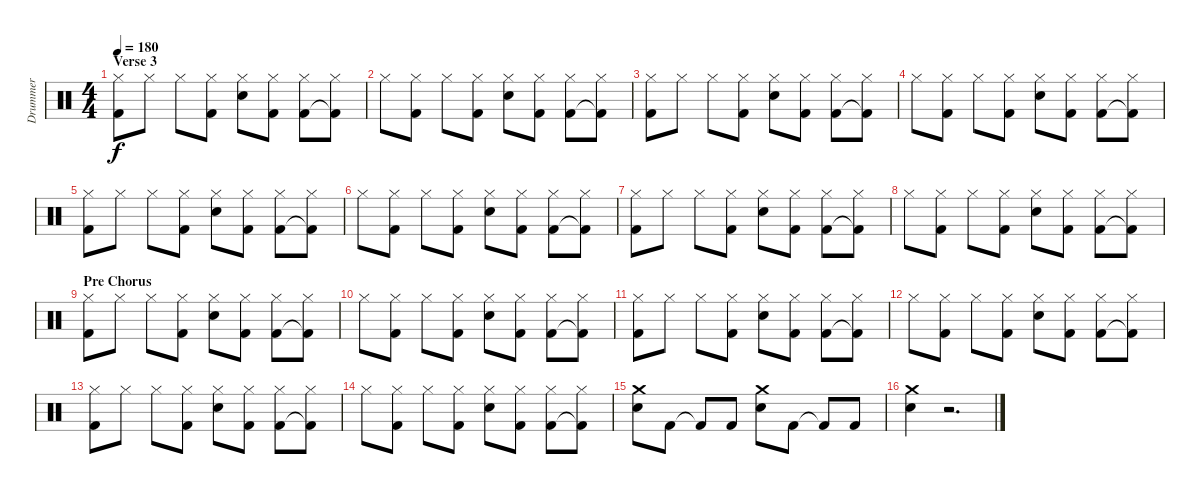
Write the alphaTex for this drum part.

\track ("Drummer" "Drummer") {instrument percussion}
\staff {score}
\articulation defaults
\ts (4 4)
\section ("" "Verse 3")
\tempo 180
\clef neutral
\ks c
("Kick (hit) 2" "Hi-Hat (closed)").8{dy f} "Hi-Hat (closed)".8 "Hi-Hat (closed)".8 ("Kick (hit) 2" "Hi-Hat (closed)").8 ("Snare (hit) 2" "Hi-Hat (closed)").8 ("Kick (hit) 2" "Hi-Hat (closed)").8 ("Kick (hit) 2" "Hi-Hat (closed)").8 ("Kick (hit) 2"{t} "Hi-Hat (closed)").8 |
"Hi-Hat (closed)".8 ("Kick (hit) 2" "Hi-Hat (closed)").8 "Hi-Hat (closed)".8 ("Kick (hit) 2" "Hi-Hat (closed)").8 ("Snare (hit) 2" "Hi-Hat (closed)").8 ("Kick (hit) 2" "Hi-Hat (closed)").8 ("Kick (hit) 2" "Hi-Hat (closed)").8 ("Kick (hit) 2"{t} "Hi-Hat (closed)").8 |
("Kick (hit) 2" "Hi-Hat (closed)").8 "Hi-Hat (closed)".8 "Hi-Hat (closed)".8 ("Kick (hit) 2" "Hi-Hat (closed)").8 ("Snare (hit) 2" "Hi-Hat (closed)").8 ("Kick (hit) 2" "Hi-Hat (closed)").8 ("Kick (hit) 2" "Hi-Hat (closed)").8 ("Kick (hit) 2"{t} "Hi-Hat (closed)").8 |
"Hi-Hat (closed)".8 ("Kick (hit) 2" "Hi-Hat (closed)").8 "Hi-Hat (closed)".8 ("Kick (hit) 2" "Hi-Hat (closed)").8 ("Snare (hit) 2" "Hi-Hat (closed)").8 ("Kick (hit) 2" "Hi-Hat (closed)").8 ("Kick (hit) 2" "Hi-Hat (closed)").8 ("Kick (hit) 2"{t} "Hi-Hat (closed)").8 |
("Kick (hit) 2" "Hi-Hat (closed)").8 "Hi-Hat (closed)".8 "Hi-Hat (closed)".8 ("Kick (hit) 2" "Hi-Hat (closed)").8 ("Snare (hit) 2" "Hi-Hat (closed)").8 ("Kick (hit) 2" "Hi-Hat (closed)").8 ("Kick (hit) 2" "Hi-Hat (closed)").8 ("Kick (hit) 2"{t} "Hi-Hat (closed)").8 |
"Hi-Hat (closed)".8 ("Kick (hit) 2" "Hi-Hat (closed)").8 "Hi-Hat (closed)".8 ("Kick (hit) 2" "Hi-Hat (closed)").8 ("Snare (hit) 2" "Hi-Hat (closed)").8 ("Kick (hit) 2" "Hi-Hat (closed)").8 ("Kick (hit) 2" "Hi-Hat (closed)").8 ("Kick (hit) 2"{t} "Hi-Hat (closed)").8 |
("Kick (hit) 2" "Hi-Hat (closed)").8 "Hi-Hat (closed)".8 "Hi-Hat (closed)".8 ("Kick (hit) 2" "Hi-Hat (closed)").8 ("Snare (hit) 2" "Hi-Hat (closed)").8 ("Kick (hit) 2" "Hi-Hat (closed)").8 ("Kick (hit) 2" "Hi-Hat (closed)").8 ("Kick (hit) 2"{t} "Hi-Hat (closed)").8 |
"Hi-Hat (closed)".8 ("Kick (hit) 2" "Hi-Hat (closed)").8 "Hi-Hat (closed)".8 ("Kick (hit) 2" "Hi-Hat (closed)").8 ("Snare (hit) 2" "Hi-Hat (closed)").8 ("Kick (hit) 2" "Hi-Hat (closed)").8 ("Kick (hit) 2" "Hi-Hat (closed)").8 ("Kick (hit) 2"{t} "Hi-Hat (closed)").8 |
\section ("" "Pre Chorus")
("Kick (hit) 2" "Hi-Hat (closed)").8 "Hi-Hat (closed)".8 "Hi-Hat (closed)".8 ("Kick (hit) 2" "Hi-Hat (closed)").8 ("Snare (hit) 2" "Hi-Hat (closed)").8 ("Kick (hit) 2" "Hi-Hat (closed)").8 ("Kick (hit) 2" "Hi-Hat (closed)").8 ("Kick (hit) 2"{t} "Hi-Hat (closed)").8 |
"Hi-Hat (closed)".8 ("Kick (hit) 2" "Hi-Hat (closed)").8 "Hi-Hat (closed)".8 ("Kick (hit) 2" "Hi-Hat (closed)").8 ("Snare (hit) 2" "Hi-Hat (closed)").8 ("Kick (hit) 2" "Hi-Hat (closed)").8 ("Kick (hit) 2" "Hi-Hat (closed)").8 ("Kick (hit) 2"{t} "Hi-Hat (closed)").8 |
("Kick (hit) 2" "Hi-Hat (closed)").8 "Hi-Hat (closed)".8 "Hi-Hat (closed)".8 ("Kick (hit) 2" "Hi-Hat (closed)").8 ("Snare (hit) 2" "Hi-Hat (closed)").8 ("Kick (hit) 2" "Hi-Hat (closed)").8 ("Kick (hit) 2" "Hi-Hat (closed)").8 ("Kick (hit) 2"{t} "Hi-Hat (closed)").8 |
"Hi-Hat (closed)".8 ("Kick (hit) 2" "Hi-Hat (closed)").8 "Hi-Hat (closed)".8 ("Kick (hit) 2" "Hi-Hat (closed)").8 ("Snare (hit) 2" "Hi-Hat (closed)").8 ("Kick (hit) 2" "Hi-Hat (closed)").8 ("Kick (hit) 2" "Hi-Hat (closed)").8 ("Kick (hit) 2"{t} "Hi-Hat (closed)").8 |
("Kick (hit) 2" "Hi-Hat (closed)").8 "Hi-Hat (closed)".8 "Hi-Hat (closed)".8 ("Kick (hit) 2" "Hi-Hat (closed)").8 ("Snare (hit) 2" "Hi-Hat (closed)").8 ("Kick (hit) 2" "Hi-Hat (closed)").8 ("Kick (hit) 2" "Hi-Hat (closed)").8 ("Kick (hit) 2"{t} "Hi-Hat (closed)").8 |
"Hi-Hat (closed)".8 ("Kick (hit) 2" "Hi-Hat (closed)").8 "Hi-Hat (closed)".8 ("Kick (hit) 2" "Hi-Hat (closed)").8 ("Snare (hit) 2" "Hi-Hat (closed)").8 ("Kick (hit) 2" "Hi-Hat (closed)").8 ("Kick (hit) 2" "Hi-Hat (closed)").8 ("Kick (hit) 2"{t} "Hi-Hat (closed)").8 |
("Snare (hit) 2" "Crash medium (hit)").8 "Kick (hit) 2".8 "Kick (hit) 2"{t}.8 "Kick (hit) 2".8 ("Snare (hit) 2" "Crash medium (hit)").8 "Kick (hit) 2".8 "Kick (hit) 2"{t}.8 "Kick (hit) 2".8 |
("Snare (hit) 2" "Crash medium (hit)").4 r.2{d}
